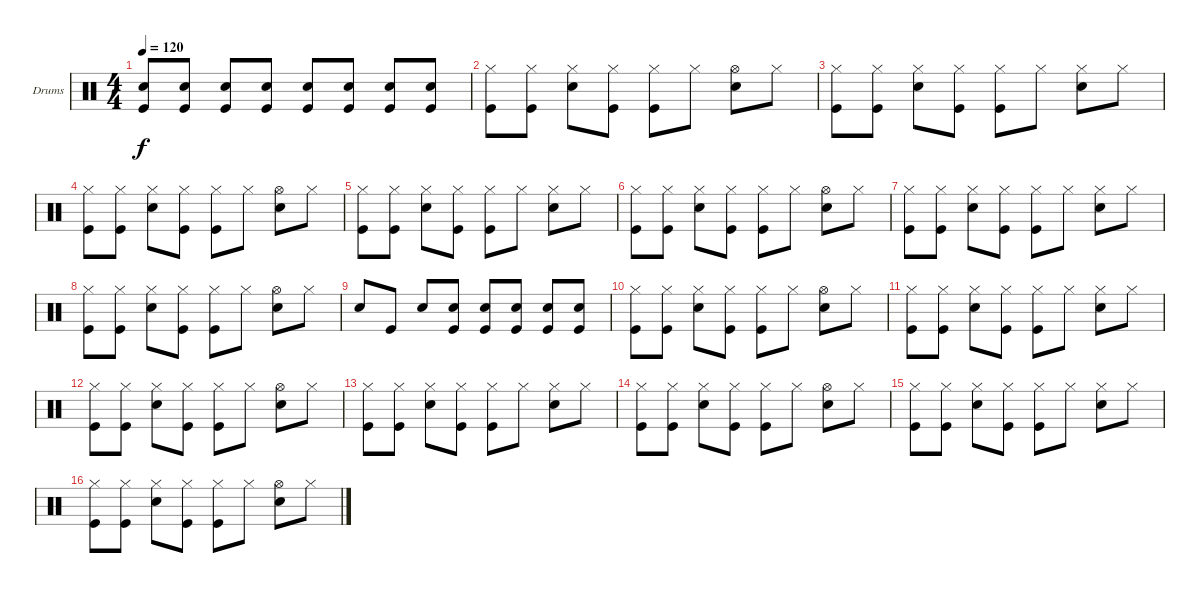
\bracketExtendMode groupsimilarinstruments
\firstSystemTrackNameOrientation horizontal
\otherSystemsTrackNameOrientation horizontal
\track ("Drumkit" "Drums") {instrument percussion}
\staff {score}
\articulation defaults
\ts (4 4)
\tempo 120
\clef neutral
\ks c
("Kick (hit)" "Snare (hit) 2").8{dy f} ("Kick (hit)" "Snare (hit) 2").8 ("Kick (hit)" "Snare (hit) 2").8 ("Kick (hit)" "Snare (hit) 2").8 ("Kick (hit)" "Snare (hit) 2").8 ("Kick (hit)" "Snare (hit) 2").8 ("Kick (hit)" "Snare (hit) 2").8 ("Kick (hit)" "Snare (hit) 2").8 |
("Kick (hit)" "Hi-Hat (closed)").8 ("Kick (hit)" "Hi-Hat (closed)").8 ("Snare (hit) 2" "Hi-Hat (closed)").8 ("Kick (hit)" "Hi-Hat (closed)").8 ("Kick (hit)" "Hi-Hat (closed)").8 "Hi-Hat (closed)".8 ("Snare (hit) 2" "Hi-Hat (open)").8 "Hi-Hat (closed)".8 |
("Kick (hit)" "Hi-Hat (closed)").8 ("Kick (hit)" "Hi-Hat (closed)").8 ("Snare (hit) 2" "Hi-Hat (closed)").8 ("Kick (hit)" "Hi-Hat (closed)").8 ("Kick (hit)" "Hi-Hat (closed)").8 "Hi-Hat (closed)".8 ("Snare (hit) 2" "Hi-Hat (closed)").8 "Hi-Hat (closed)".8 |
("Kick (hit)" "Hi-Hat (closed)").8 ("Kick (hit)" "Hi-Hat (closed)").8 ("Snare (hit) 2" "Hi-Hat (closed)").8 ("Kick (hit)" "Hi-Hat (closed)").8 ("Kick (hit)" "Hi-Hat (closed)").8 "Hi-Hat (closed)".8 ("Snare (hit) 2" "Hi-Hat (open)").8 "Hi-Hat (closed)".8 |
("Kick (hit)" "Hi-Hat (closed)").8 ("Kick (hit)" "Hi-Hat (closed)").8 ("Snare (hit) 2" "Hi-Hat (closed)").8 ("Kick (hit)" "Hi-Hat (closed)").8 ("Kick (hit)" "Hi-Hat (closed)").8 "Hi-Hat (closed)".8 ("Snare (hit) 2" "Hi-Hat (closed)").8 "Hi-Hat (closed)".8 |
("Kick (hit)" "Hi-Hat (closed)").8 ("Kick (hit)" "Hi-Hat (closed)").8 ("Snare (hit) 2" "Hi-Hat (closed)").8 ("Kick (hit)" "Hi-Hat (closed)").8 ("Kick (hit)" "Hi-Hat (closed)").8 "Hi-Hat (closed)".8 ("Snare (hit) 2" "Hi-Hat (open)").8 "Hi-Hat (closed)".8 |
("Kick (hit)" "Hi-Hat (closed)").8 ("Kick (hit)" "Hi-Hat (closed)").8 ("Snare (hit) 2" "Hi-Hat (closed)").8 ("Kick (hit)" "Hi-Hat (closed)").8 ("Kick (hit)" "Hi-Hat (closed)").8 "Hi-Hat (closed)".8 ("Snare (hit) 2" "Hi-Hat (closed)").8 "Hi-Hat (closed)".8 |
("Kick (hit)" "Hi-Hat (closed)").8 ("Kick (hit)" "Hi-Hat (closed)").8 ("Snare (hit) 2" "Hi-Hat (closed)").8 ("Kick (hit)" "Hi-Hat (closed)").8 ("Kick (hit)" "Hi-Hat (closed)").8 "Hi-Hat (closed)".8 ("Snare (hit) 2" "Hi-Hat (open)").8 "Hi-Hat (closed)".8 |
"Snare (hit) 2".8 "Kick (hit)".8 "Snare (hit) 2".8 ("Kick (hit)" "Snare (hit) 2").8 ("Kick (hit)" "Snare (hit) 2").8 ("Kick (hit)" "Snare (hit) 2").8 ("Kick (hit)" "Snare (hit) 2").8 ("Kick (hit)" "Snare (hit) 2").8 |
("Kick (hit)" "Hi-Hat (closed)").8 ("Kick (hit)" "Hi-Hat (closed)").8 ("Snare (hit) 2" "Hi-Hat (closed)").8 ("Kick (hit)" "Hi-Hat (closed)").8 ("Kick (hit)" "Hi-Hat (closed)").8 "Hi-Hat (closed)".8 ("Snare (hit) 2" "Hi-Hat (open)").8 "Hi-Hat (closed)".8 |
("Kick (hit)" "Hi-Hat (closed)").8 ("Kick (hit)" "Hi-Hat (closed)").8 ("Snare (hit) 2" "Hi-Hat (closed)").8 ("Kick (hit)" "Hi-Hat (closed)").8 ("Kick (hit)" "Hi-Hat (closed)").8 "Hi-Hat (closed)".8 ("Snare (hit) 2" "Hi-Hat (closed)").8 "Hi-Hat (closed)".8 |
("Kick (hit)" "Hi-Hat (closed)").8 ("Kick (hit)" "Hi-Hat (closed)").8 ("Snare (hit) 2" "Hi-Hat (closed)").8 ("Kick (hit)" "Hi-Hat (closed)").8 ("Kick (hit)" "Hi-Hat (closed)").8 "Hi-Hat (closed)".8 ("Snare (hit) 2" "Hi-Hat (open)").8 "Hi-Hat (closed)".8 |
("Kick (hit)" "Hi-Hat (closed)").8 ("Kick (hit)" "Hi-Hat (closed)").8 ("Snare (hit) 2" "Hi-Hat (closed)").8 ("Kick (hit)" "Hi-Hat (closed)").8 ("Kick (hit)" "Hi-Hat (closed)").8 "Hi-Hat (closed)".8 ("Snare (hit) 2" "Hi-Hat (closed)").8 "Hi-Hat (closed)".8 |
("Kick (hit)" "Hi-Hat (closed)").8 ("Kick (hit)" "Hi-Hat (closed)").8 ("Snare (hit) 2" "Hi-Hat (closed)").8 ("Kick (hit)" "Hi-Hat (closed)").8 ("Kick (hit)" "Hi-Hat (closed)").8 "Hi-Hat (closed)".8 ("Snare (hit) 2" "Hi-Hat (open)").8 "Hi-Hat (closed)".8 |
("Kick (hit)" "Hi-Hat (closed)").8 ("Kick (hit)" "Hi-Hat (closed)").8 ("Snare (hit) 2" "Hi-Hat (closed)").8 ("Kick (hit)" "Hi-Hat (closed)").8 ("Kick (hit)" "Hi-Hat (closed)").8 "Hi-Hat (closed)".8 ("Snare (hit) 2" "Hi-Hat (closed)").8 "Hi-Hat (closed)".8 |
("Kick (hit)" "Hi-Hat (closed)").8 ("Kick (hit)" "Hi-Hat (closed)").8 ("Snare (hit) 2" "Hi-Hat (closed)").8 ("Kick (hit)" "Hi-Hat (closed)").8 ("Kick (hit)" "Hi-Hat (closed)").8 "Hi-Hat (closed)".8 ("Snare (hit) 2" "Hi-Hat (open)").8 "Hi-Hat (closed)".8
